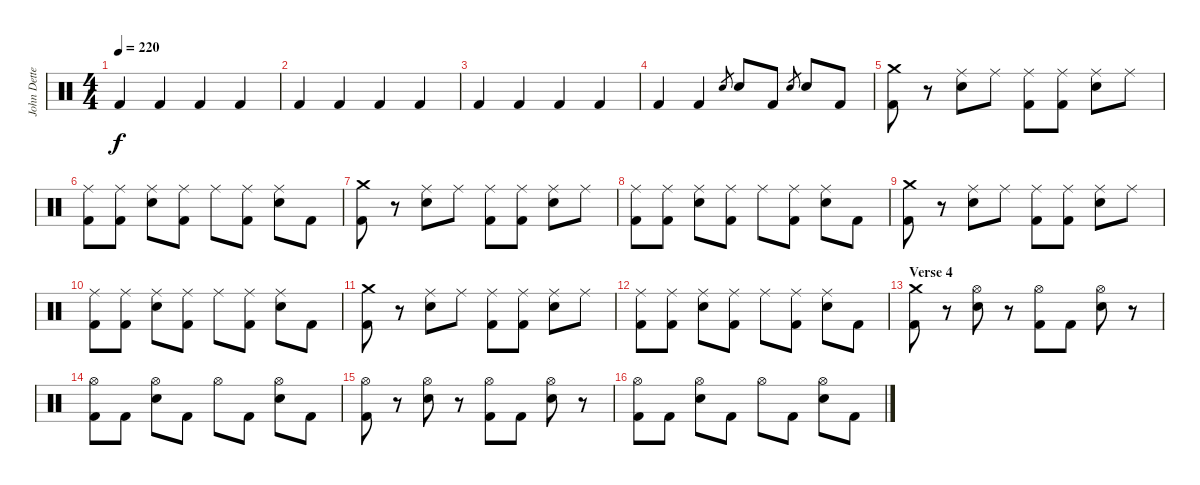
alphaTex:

\track ("John Dette" "John Dette") {instrument percussion}
\staff {score}
\articulation defaults
\ts (4 4)
\tempo 220
\clef neutral
\ks c "Kick (hit) 2".4{dy f} "Kick (hit) 2".4 "Kick (hit) 2".4 "Kick (hit) 2".4
|
"Kick (hit) 2".4 "Kick (hit) 2".4 "Kick (hit) 2".4 "Kick (hit) 2".4 |
"Kick (hit) 2".4 "Kick (hit) 2".4 "Kick (hit) 2".4 "Kick (hit) 2".4 |
"Kick (hit) 2".4 "Kick (hit) 2".4 "Snare (hit) 2".8{gr} "Snare (hit) 2".8 "Kick (hit) 2".8 "Snare (hit) 2".8{gr} "Snare (hit) 2".8 "Kick (hit) 2".8 |
("Crash medium (hit)" "Kick (hit) 2").8 r.8 ("Ride (middle)" "Snare (hit) 2").8 "Ride (middle)".8 ("Ride (middle)" "Kick (hit) 2").8 ("Ride (middle)" "Kick (hit) 2").8 ("Ride (middle)" "Snare (hit) 2").8 "Ride (middle)".8 |
("Ride (middle)" "Kick (hit) 2").8 ("Ride (middle)" "Kick (hit) 2").8 ("Ride (middle)" "Snare (hit) 2").8 ("Ride (middle)" "Kick (hit) 2").8 "Ride (middle)".8 ("Ride (middle)" "Kick (hit) 2").8 ("Ride (middle)" "Snare (hit) 2").8 "Kick (hit) 2".8 |
("Crash medium (hit)" "Kick (hit) 2").8 r.8 ("Ride (middle)" "Snare (hit) 2").8 "Ride (middle)".8 ("Ride (middle)" "Kick (hit) 2").8 ("Ride (middle)" "Kick (hit) 2").8 ("Ride (middle)" "Snare (hit) 2").8 "Ride (middle)".8 |
("Ride (middle)" "Kick (hit) 2").8 ("Ride (middle)" "Kick (hit) 2").8 ("Ride (middle)" "Snare (hit) 2").8 ("Ride (middle)" "Kick (hit) 2").8 "Ride (middle)".8 ("Ride (middle)" "Kick (hit) 2").8 ("Ride (middle)" "Snare (hit) 2").8 "Kick (hit) 2".8 |
("Crash medium (hit)" "Kick (hit) 2").8 r.8 ("Ride (middle)" "Snare (hit) 2").8 "Ride (middle)".8 ("Ride (middle)" "Kick (hit) 2").8 ("Ride (middle)" "Kick (hit) 2").8 ("Ride (middle)" "Snare (hit) 2").8 "Ride (middle)".8 |
("Ride (middle)" "Kick (hit) 2").8 ("Ride (middle)" "Kick (hit) 2").8 ("Ride (middle)" "Snare (hit) 2").8 ("Ride (middle)" "Kick (hit) 2").8 "Ride (middle)".8 ("Ride (middle)" "Kick (hit) 2").8 ("Ride (middle)" "Snare (hit) 2").8 "Kick (hit) 2".8 |
("Crash medium (hit)" "Kick (hit) 2").8 r.8 ("Ride (middle)" "Snare (hit) 2").8 "Ride (middle)".8 ("Ride (middle)" "Kick (hit) 2").8 ("Ride (middle)" "Kick (hit) 2").8 ("Ride (middle)" "Snare (hit) 2").8 "Ride (middle)".8 |
("Ride (middle)" "Kick (hit) 2").8 ("Ride (middle)" "Kick (hit) 2").8 ("Ride (middle)" "Snare (hit) 2").8 ("Ride (middle)" "Kick (hit) 2").8 "Ride (middle)".8 ("Ride (middle)" "Kick (hit) 2").8 ("Ride (middle)" "Snare (hit) 2").8 "Kick (hit) 2".8 |
\section ("" "Verse 4")
("Crash medium (hit)" "Kick (hit) 2").8 r.8 ("Hi-Hat (open)" "Snare (hit) 2").8 r.8 ("Hi-Hat (open)" "Kick (hit) 2").8 "Kick (hit) 2".8 ("Hi-Hat (open)" "Snare (hit) 2").8 r.8 |
("Hi-Hat (open)" "Kick (hit) 2").8 "Kick (hit) 2".8 ("Hi-Hat (open)" "Snare (hit) 2").8 "Kick (hit) 2".8 "Hi-Hat (open)".8 "Kick (hit) 2".8 ("Hi-Hat (open)" "Snare (hit) 2").8 "Kick (hit) 2".8 |
("Hi-Hat (open)" "Kick (hit) 2").8 r.8 ("Hi-Hat (open)" "Snare (hit) 2").8 r.8 ("Hi-Hat (open)" "Kick (hit) 2").8 "Kick (hit) 2".8 ("Hi-Hat (open)" "Snare (hit) 2").8 r.8 |
("Hi-Hat (open)" "Kick (hit) 2").8 "Kick (hit) 2".8 ("Hi-Hat (open)" "Snare (hit) 2").8 "Kick (hit) 2".8 "Hi-Hat (open)".8 "Kick (hit) 2".8 ("Hi-Hat (open)" "Snare (hit) 2").8 "Kick (hit) 2".8
